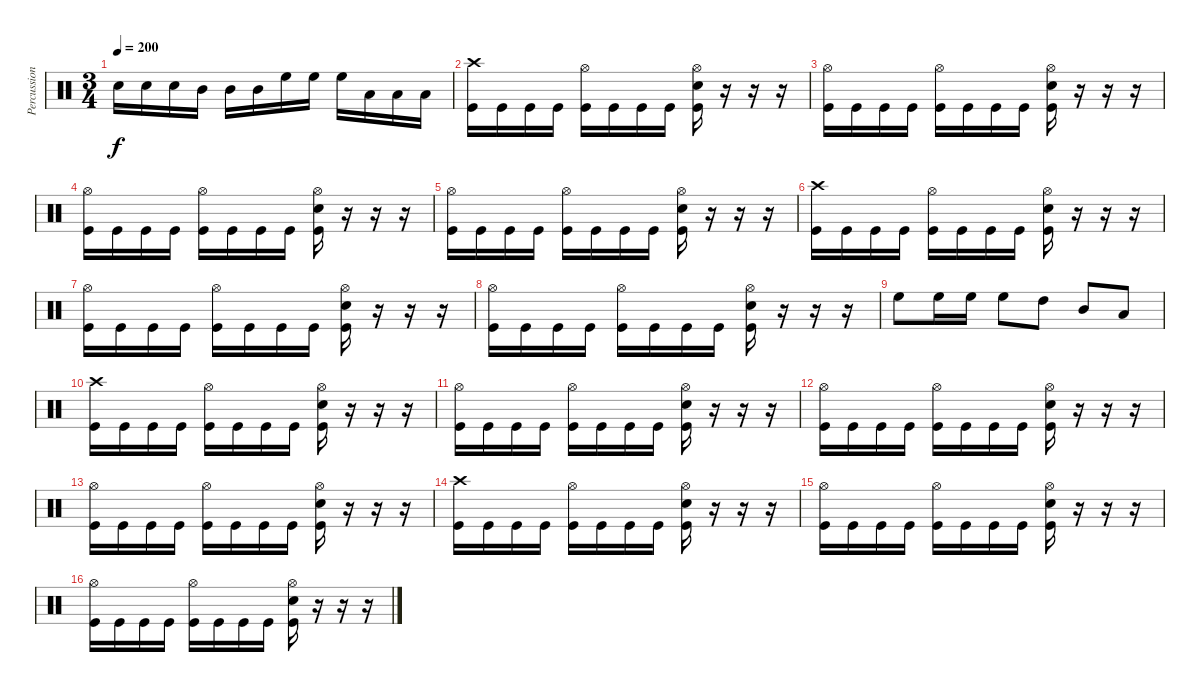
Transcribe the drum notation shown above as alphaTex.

\track ("Percussion" "Percussion") {instrument percussion}
\staff {score}
\articulation defaults
\ts (3 4)
\tempo 200
\clef neutral
\ks c "Snare (hit) 2".16{dy f} "Snare (hit) 2".16 "Snare (hit) 2".16 "Mid Tom (hit)".16 "Mid Tom (hit)".16 "Mid Tom (hit)".16 "High Floor Tom (hit)".16 "High Floor Tom (hit)".16 "High Floor Tom (hit)".16 "Low Tom (hit)".16 "Low Tom (hit)".16 "Low Tom (hit)".16
|
("Crash high (hit)" "Kick (hit)").16 "Kick (hit)".16 "Kick (hit)".16 "Kick (hit)".16 ("Hi-Hat (open)" "Kick (hit)").16 "Kick (hit)".16 "Kick (hit)".16 "Kick (hit)".16 ("Hi-Hat (open)" "Snare (hit) 2" "Kick (hit)").16 r.16 r.16 r.16 |
("Hi-Hat (open)" "Kick (hit)").16 "Kick (hit)".16 "Kick (hit)".16 "Kick (hit)".16 ("Hi-Hat (open)" "Kick (hit)").16 "Kick (hit)".16 "Kick (hit)".16 "Kick (hit)".16 ("Hi-Hat (open)" "Snare (hit) 2" "Kick (hit)").16 r.16 r.16 r.16 |
("Hi-Hat (open)" "Kick (hit)").16 "Kick (hit)".16 "Kick (hit)".16 "Kick (hit)".16 ("Hi-Hat (open)" "Kick (hit)").16 "Kick (hit)".16 "Kick (hit)".16 "Kick (hit)".16 ("Hi-Hat (open)" "Snare (hit) 2" "Kick (hit)").16 r.16 r.16 r.16 |
("Hi-Hat (open)" "Kick (hit)").16 "Kick (hit)".16 "Kick (hit)".16 "Kick (hit)".16 ("Hi-Hat (open)" "Kick (hit)").16 "Kick (hit)".16 "Kick (hit)".16 "Kick (hit)".16 ("Hi-Hat (open)" "Snare (hit) 2" "Kick (hit)").16 r.16 r.16 r.16 |
("Crash high (hit)" "Kick (hit)").16 "Kick (hit)".16 "Kick (hit)".16 "Kick (hit)".16 ("Hi-Hat (open)" "Kick (hit)").16 "Kick (hit)".16 "Kick (hit)".16 "Kick (hit)".16 ("Hi-Hat (open)" "Snare (hit) 2" "Kick (hit)").16 r.16 r.16 r.16 |
("Hi-Hat (open)" "Kick (hit)").16 "Kick (hit)".16 "Kick (hit)".16 "Kick (hit)".16 ("Hi-Hat (open)" "Kick (hit)").16 "Kick (hit)".16 "Kick (hit)".16 "Kick (hit)".16 ("Hi-Hat (open)" "Snare (hit) 2" "Kick (hit)").16 r.16 r.16 r.16 |
("Hi-Hat (open)" "Kick (hit)").16 "Kick (hit)".16 "Kick (hit)".16 "Kick (hit)".16 ("Hi-Hat (open)" "Kick (hit)").16 "Kick (hit)".16 "Kick (hit)".16 "Kick (hit)".16 ("Hi-Hat (open)" "Snare (hit) 2" "Kick (hit)").16 r.16 r.16 r.16 |
"High Floor Tom (hit)".8 "High Floor Tom (hit)".16 "High Floor Tom (hit)".16 "High Floor Tom (hit)".8 "High Tom (hit)".8 "Mid Tom (hit)".8 "Low Tom (hit)".8 |
("Crash high (hit)" "Kick (hit)").16 "Kick (hit)".16 "Kick (hit)".16 "Kick (hit)".16 ("Hi-Hat (open)" "Kick (hit)").16 "Kick (hit)".16 "Kick (hit)".16 "Kick (hit)".16 ("Hi-Hat (open)" "Snare (hit) 2" "Kick (hit)").16 r.16 r.16 r.16 |
("Hi-Hat (open)" "Kick (hit)").16 "Kick (hit)".16 "Kick (hit)".16 "Kick (hit)".16 ("Hi-Hat (open)" "Kick (hit)").16 "Kick (hit)".16 "Kick (hit)".16 "Kick (hit)".16 ("Hi-Hat (open)" "Snare (hit) 2" "Kick (hit)").16 r.16 r.16 r.16 |
("Hi-Hat (open)" "Kick (hit)").16 "Kick (hit)".16 "Kick (hit)".16 "Kick (hit)".16 ("Hi-Hat (open)" "Kick (hit)").16 "Kick (hit)".16 "Kick (hit)".16 "Kick (hit)".16 ("Hi-Hat (open)" "Snare (hit) 2" "Kick (hit)").16 r.16 r.16 r.16 |
("Hi-Hat (open)" "Kick (hit)").16 "Kick (hit)".16 "Kick (hit)".16 "Kick (hit)".16 ("Hi-Hat (open)" "Kick (hit)").16 "Kick (hit)".16 "Kick (hit)".16 "Kick (hit)".16 ("Hi-Hat (open)" "Snare (hit) 2" "Kick (hit)").16 r.16 r.16 r.16 |
("Crash high (hit)" "Kick (hit)").16 "Kick (hit)".16 "Kick (hit)".16 "Kick (hit)".16 ("Hi-Hat (open)" "Kick (hit)").16 "Kick (hit)".16 "Kick (hit)".16 "Kick (hit)".16 ("Hi-Hat (open)" "Snare (hit) 2" "Kick (hit)").16 r.16 r.16 r.16 |
("Hi-Hat (open)" "Kick (hit)").16 "Kick (hit)".16 "Kick (hit)".16 "Kick (hit)".16 ("Hi-Hat (open)" "Kick (hit)").16 "Kick (hit)".16 "Kick (hit)".16 "Kick (hit)".16 ("Hi-Hat (open)" "Snare (hit) 2" "Kick (hit)").16 r.16 r.16 r.16 |
("Hi-Hat (open)" "Kick (hit)").16 "Kick (hit)".16 "Kick (hit)".16 "Kick (hit)".16 ("Hi-Hat (open)" "Kick (hit)").16 "Kick (hit)".16 "Kick (hit)".16 "Kick (hit)".16 ("Hi-Hat (open)" "Snare (hit) 2" "Kick (hit)").16 r.16 r.16 r.16
